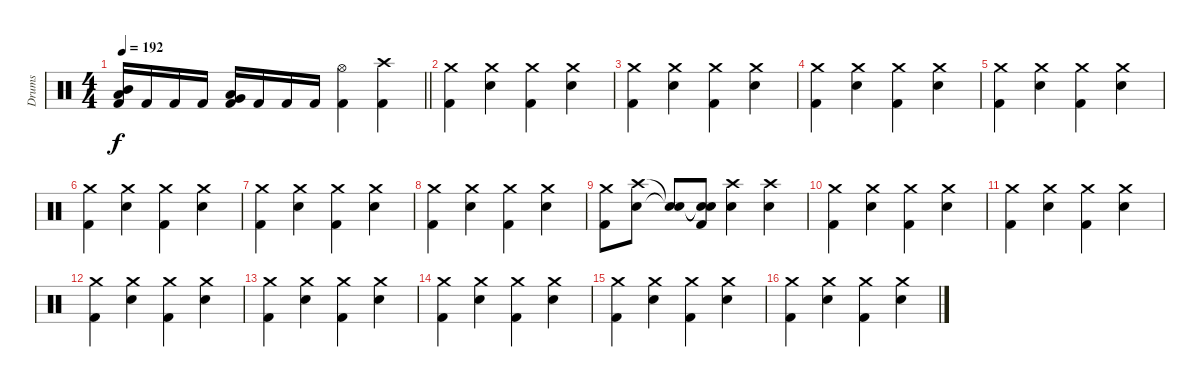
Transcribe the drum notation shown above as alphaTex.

\track ("Drums" "Drums") {instrument percussion}
\staff {score}
\articulation defaults
\ts (4 4)
\tempo 192
\clef neutral
\barLineRight lightlight
\ks c
("Kick (hit) 2" "Mid Tom (hit)" "Low Tom (hit)").16{dy f} "Kick (hit) 2".16 "Kick (hit) 2".16 "Kick (hit) 2".16 ("Kick (hit) 2" "Low Tom (hit)" "Very Low Tom (hit)").16 "Kick (hit) 2".16 "Kick (hit) 2".16 "Kick (hit) 2".16 ("Kick (hit) 2" "Hi-Hat (open)").4 ("Kick (hit) 2" "Crash high (hit)").4 |
("Crash medium (hit)" "Kick (hit) 2").4 ("Crash medium (hit)" "Electric Snare (hit)").4 ("Crash medium (hit)" "Kick (hit) 2").4 ("Crash medium (hit)" "Electric Snare (hit)").4 |
("Crash medium (hit)" "Kick (hit) 2").4 ("Crash medium (hit)" "Electric Snare (hit)").4 ("Crash medium (hit)" "Kick (hit) 2").4 ("Crash medium (hit)" "Electric Snare (hit)").4 |
("Crash medium (hit)" "Kick (hit) 2").4 ("Crash medium (hit)" "Electric Snare (hit)").4 ("Crash medium (hit)" "Kick (hit) 2").4 ("Crash medium (hit)" "Electric Snare (hit)").4 |
("Crash medium (hit)" "Kick (hit) 2").4 ("Crash medium (hit)" "Electric Snare (hit)").4 ("Crash medium (hit)" "Kick (hit) 2").4 ("Crash medium (hit)" "Electric Snare (hit)").4 |
("Crash medium (hit)" "Kick (hit) 2").4 ("Crash medium (hit)" "Electric Snare (hit)").4 ("Crash medium (hit)" "Kick (hit) 2").4 ("Crash medium (hit)" "Electric Snare (hit)").4 |
("Crash medium (hit)" "Kick (hit) 2").4 ("Crash medium (hit)" "Electric Snare (hit)").4 ("Crash medium (hit)" "Kick (hit) 2").4 ("Crash medium (hit)" "Electric Snare (hit)").4 |
("Crash medium (hit)" "Kick (hit) 2").4 ("Crash medium (hit)" "Electric Snare (hit)").4 ("Crash medium (hit)" "Kick (hit) 2").4 ("Crash medium (hit)" "Electric Snare (hit)").4 |
("Crash medium (hit)" "Kick (hit) 2").8 ("Crash high (hit)" "Electric Snare (hit)").8 ("Snare (hit)"{t} "Snare (hit)"{t}).8 ("Snare (hit)"{t} "Snare (hit)"{t} "Kick (hit) 2").8 ("Crash high (hit)" "Electric Snare (hit)").4 ("Crash high (hit)" "Electric Snare (hit)").4 |
("Crash medium (hit)" "Kick (hit) 2").4 ("Crash medium (hit)" "Electric Snare (hit)").4 ("Crash medium (hit)" "Kick (hit) 2").4 ("Crash medium (hit)" "Electric Snare (hit)").4 |
("Crash medium (hit)" "Kick (hit) 2").4 ("Crash medium (hit)" "Electric Snare (hit)").4 ("Crash medium (hit)" "Kick (hit) 2").4 ("Crash medium (hit)" "Electric Snare (hit)").4 |
("Crash medium (hit)" "Kick (hit) 2").4 ("Crash medium (hit)" "Electric Snare (hit)").4 ("Crash medium (hit)" "Kick (hit) 2").4 ("Crash medium (hit)" "Electric Snare (hit)").4 |
("Crash medium (hit)" "Kick (hit) 2").4 ("Crash medium (hit)" "Electric Snare (hit)").4 ("Crash medium (hit)" "Kick (hit) 2").4 ("Crash medium (hit)" "Electric Snare (hit)").4 |
("Crash medium (hit)" "Kick (hit) 2").4 ("Crash medium (hit)" "Electric Snare (hit)").4 ("Crash medium (hit)" "Kick (hit) 2").4 ("Crash medium (hit)" "Electric Snare (hit)").4 |
("Crash medium (hit)" "Kick (hit) 2").4 ("Crash medium (hit)" "Electric Snare (hit)").4 ("Crash medium (hit)" "Kick (hit) 2").4 ("Crash medium (hit)" "Electric Snare (hit)").4 |
("Crash medium (hit)" "Kick (hit) 2").4 ("Crash medium (hit)" "Electric Snare (hit)").4 ("Crash medium (hit)" "Kick (hit) 2").4 ("Crash medium (hit)" "Electric Snare (hit)").4
